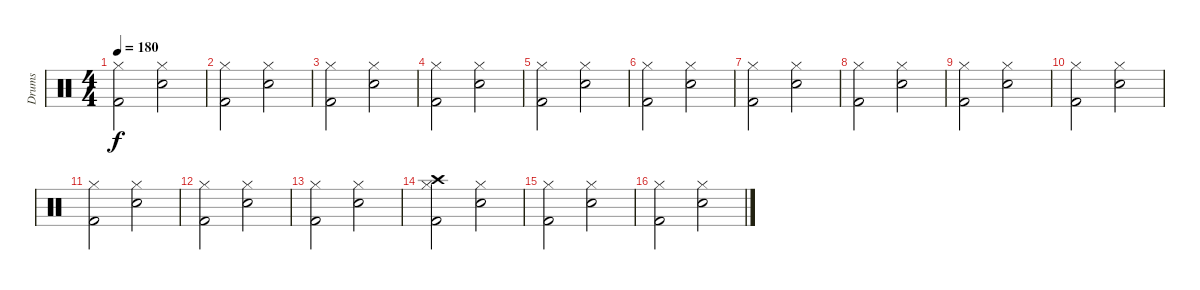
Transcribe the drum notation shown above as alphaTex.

\track ("Drums" "Drums") {instrument percussion}
\staff {score}
\articulation defaults
\ts (4 4)
\tempo 180
\clef neutral
\ks c
("Hi-Hat (closed)" "Kick (hit) 2").2{dy f} ("Hi-Hat (closed)" "Snare (hit) 2").2 |
("Hi-Hat (closed)" "Kick (hit) 2").2 ("Hi-Hat (closed)" "Snare (hit) 2").2 |
("Hi-Hat (closed)" "Kick (hit) 2").2 ("Hi-Hat (closed)" "Snare (hit) 2").2 |
("Hi-Hat (closed)" "Kick (hit) 2").2 ("Hi-Hat (closed)" "Snare (hit) 2").2 |
("Hi-Hat (closed)" "Kick (hit) 2").2 ("Hi-Hat (closed)" "Snare (hit) 2").2 |
("Hi-Hat (closed)" "Kick (hit) 2").2 ("Hi-Hat (closed)" "Snare (hit) 2").2 |
("Hi-Hat (closed)" "Kick (hit) 2").2 ("Hi-Hat (closed)" "Snare (hit) 2").2 |
("Hi-Hat (closed)" "Kick (hit) 2").2 ("Hi-Hat (closed)" "Snare (hit) 2").2 |
("Hi-Hat (closed)" "Kick (hit) 2").2 ("Hi-Hat (closed)" "Snare (hit) 2").2 |
("Hi-Hat (closed)" "Kick (hit) 2").2 ("Hi-Hat (closed)" "Snare (hit) 2").2 |
("Hi-Hat (closed)" "Kick (hit) 2").2 ("Hi-Hat (closed)" "Snare (hit) 2").2 |
("Hi-Hat (closed)" "Kick (hit) 2").2 ("Hi-Hat (closed)" "Snare (hit) 2").2 |
("Hi-Hat (closed)" "Kick (hit) 2").2 ("Hi-Hat (closed)" "Snare (hit) 2").2 |
("Crash high (hit)" "Hi-Hat (closed)" "Kick (hit) 2").2 ("Hi-Hat (closed)" "Snare (hit) 2").2 |
("Hi-Hat (closed)" "Kick (hit) 2").2 ("Hi-Hat (closed)" "Snare (hit) 2").2 |
("Hi-Hat (closed)" "Kick (hit) 2").2 ("Hi-Hat (closed)" "Snare (hit) 2").2
